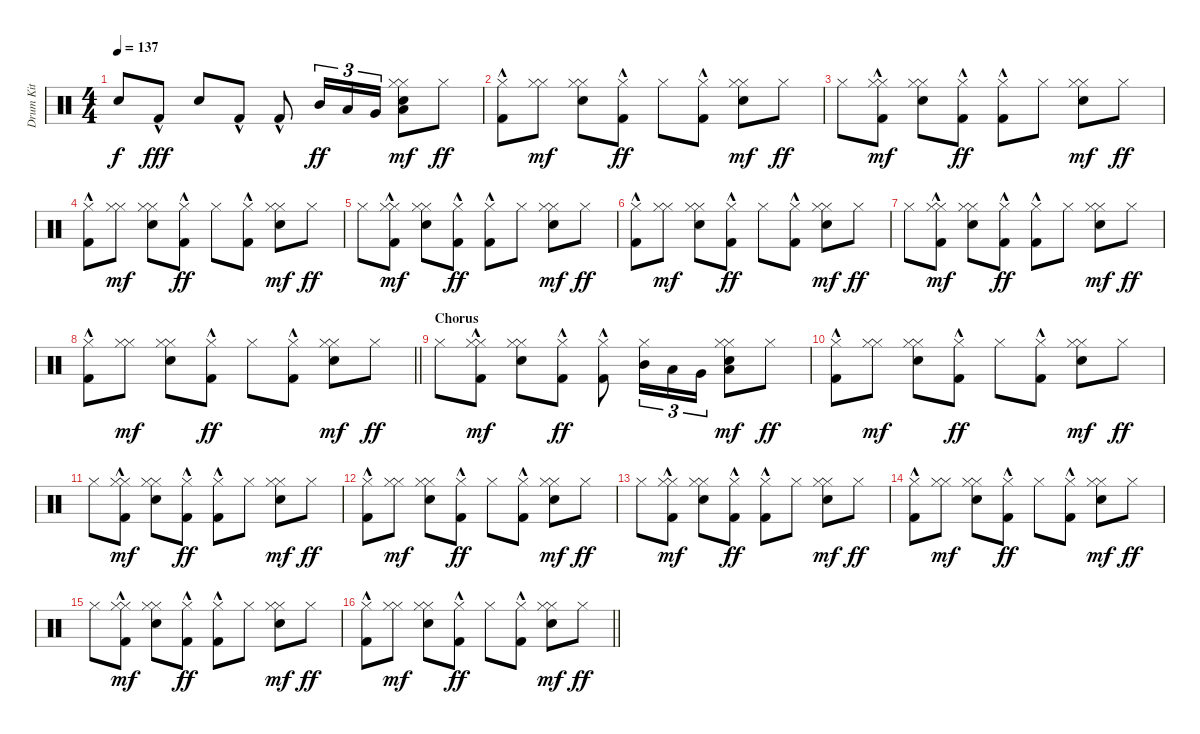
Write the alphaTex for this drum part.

\track ("Drum Kit" "Drum Kit") {instrument percussion}
\staff {score}
\articulation defaults
\ts (4 4)
\tempo 137
\clef neutral
\ks c "Snare (hit)"{t}.8{dy f} "Kick (hit) 2"{hac}.8{dy fff} "Hand Clap (hit)".8 "Kick (hit) 2"{hac}.8 "Kick (hit) 2"{hac}.8 "Mid Tom (hit)".16{tu (3 2) dy ff} "Low Tom (hit)".16{tu (3 2)} "Very Low Tom (hit)".16{tu (3 2)}
("Hand Clap (hit)" "Low Floor Tom (hit)" "Hi-Hat (closed)" "Hi-Hat (closed)").8{dy mf} "Hi-Hat (closed)".8{dy ff} |
("Kick (hit) 2"{hac} "Hi-Hat (closed)").8 ("Hi-Hat (closed)" "Hi-Hat (closed)").8{dy mf} ("Hand Clap (hit)" "Hi-Hat (closed)" "Hi-Hat (closed)").8 ("Kick (hit) 2"{hac} "Hi-Hat (closed)").8{dy ff} "Hi-Hat (closed)".8 ("Kick (hit) 2"{hac} "Hi-Hat (closed)").8 ("Hand Clap (hit)" "Hi-Hat (closed)" "Hi-Hat (closed)").8{dy mf} "Hi-Hat (closed)".8{dy ff} |
"Hi-Hat (closed)".8 ("Kick (hit) 2"{hac} "Hi-Hat (closed)" "Hi-Hat (closed)").8{dy mf} ("Hand Clap (hit)" "Hi-Hat (closed)" "Hi-Hat (closed)").8 ("Kick (hit) 2"{hac} "Hi-Hat (closed)").8{dy ff} ("Kick (hit) 2"{hac} "Hi-Hat (closed)").8 "Hi-Hat (closed)".8 ("Hand Clap (hit)" "Hi-Hat (closed)" "Hi-Hat (closed)").8{dy mf} "Hi-Hat (closed)".8{dy ff} |
("Kick (hit) 2"{hac} "Hi-Hat (closed)").8 ("Hi-Hat (closed)" "Hi-Hat (closed)").8{dy mf} ("Hand Clap (hit)" "Hi-Hat (closed)" "Hi-Hat (closed)").8 ("Kick (hit) 2"{hac} "Hi-Hat (closed)").8{dy ff} "Hi-Hat (closed)".8 ("Kick (hit) 2"{hac} "Hi-Hat (closed)").8 ("Hand Clap (hit)" "Hi-Hat (closed)" "Hi-Hat (closed)").8{dy mf} "Hi-Hat (closed)".8{dy ff} |
"Hi-Hat (closed)".8 ("Kick (hit) 2"{hac} "Hi-Hat (closed)" "Hi-Hat (closed)").8{dy mf} ("Hand Clap (hit)" "Hi-Hat (closed)" "Hi-Hat (closed)").8 ("Kick (hit) 2"{hac} "Hi-Hat (closed)").8{dy ff} ("Kick (hit) 2"{hac} "Hi-Hat (closed)").8 "Hi-Hat (closed)".8 ("Hand Clap (hit)" "Hi-Hat (closed)" "Hi-Hat (closed)").8{dy mf} "Hi-Hat (closed)".8{dy ff} |
("Kick (hit) 2"{hac} "Hi-Hat (closed)").8 ("Hi-Hat (closed)" "Hi-Hat (closed)").8{dy mf} ("Hand Clap (hit)" "Hi-Hat (closed)" "Hi-Hat (closed)").8 ("Kick (hit) 2"{hac} "Hi-Hat (closed)").8{dy ff} "Hi-Hat (closed)".8 ("Kick (hit) 2"{hac} "Hi-Hat (closed)").8 ("Hand Clap (hit)" "Hi-Hat (closed)" "Hi-Hat (closed)").8{dy mf} "Hi-Hat (closed)".8{dy ff} |
"Hi-Hat (closed)".8 ("Kick (hit) 2"{hac} "Hi-Hat (closed)" "Hi-Hat (closed)").8{dy mf} ("Hand Clap (hit)" "Hi-Hat (closed)" "Hi-Hat (closed)").8 ("Kick (hit) 2"{hac} "Hi-Hat (closed)").8{dy ff} ("Kick (hit) 2"{hac} "Hi-Hat (closed)").8 "Hi-Hat (closed)".8 ("Hand Clap (hit)" "Hi-Hat (closed)" "Hi-Hat (closed)").8{dy mf} "Hi-Hat (closed)".8{dy ff} |
\barLineRight lightlight
("Kick (hit) 2"{hac} "Hi-Hat (closed)").8 ("Hi-Hat (closed)" "Hi-Hat (closed)").8{dy mf} ("Hand Clap (hit)" "Hi-Hat (closed)" "Hi-Hat (closed)").8 ("Kick (hit) 2"{hac} "Hi-Hat (closed)").8{dy ff} "Hi-Hat (closed)".8 ("Kick (hit) 2"{hac} "Hi-Hat (closed)").8 ("Hand Clap (hit)" "Hi-Hat (closed)" "Hi-Hat (closed)").8{dy mf} "Hi-Hat (closed)".8{dy ff} |
\section ("" "Chorus")
"Hi-Hat (closed)".8 ("Kick (hit) 2"{hac} "Hi-Hat (closed)" "Hi-Hat (closed)").8{dy mf} ("Hand Clap (hit)" "Hi-Hat (closed)" "Hi-Hat (closed)").8 ("Kick (hit) 2"{hac} "Hi-Hat (closed)").8{dy ff} ("Kick (hit) 2"{hac} "Hi-Hat (closed)").8 ("Hi-Hat (closed)" "Mid Tom (hit)").16{tu (3 2)} "Low Tom (hit)".16{tu (3 2)} "Very Low Tom (hit)".16{tu (3 2)} ("Hand Clap (hit)" "Low Floor Tom (hit)" "Hi-Hat (closed)" "Hi-Hat (closed)").8{dy mf} "Hi-Hat (closed)".8{dy ff} |
("Kick (hit) 2"{hac} "Hi-Hat (closed)").8 ("Hi-Hat (closed)" "Hi-Hat (closed)").8{dy mf} ("Hand Clap (hit)" "Hi-Hat (closed)" "Hi-Hat (closed)").8 ("Kick (hit) 2"{hac} "Hi-Hat (closed)").8{dy ff} "Hi-Hat (closed)".8 ("Kick (hit) 2"{hac} "Hi-Hat (closed)").8 ("Hand Clap (hit)" "Hi-Hat (closed)" "Hi-Hat (closed)").8{dy mf} "Hi-Hat (closed)".8{dy ff} |
"Hi-Hat (closed)".8 ("Kick (hit) 2"{hac} "Hi-Hat (closed)" "Hi-Hat (closed)").8{dy mf} ("Hand Clap (hit)" "Hi-Hat (closed)" "Hi-Hat (closed)").8 ("Kick (hit) 2"{hac} "Hi-Hat (closed)").8{dy ff} ("Kick (hit) 2"{hac} "Hi-Hat (closed)").8 "Hi-Hat (closed)".8 ("Hand Clap (hit)" "Hi-Hat (closed)" "Hi-Hat (closed)").8{dy mf} "Hi-Hat (closed)".8{dy ff} |
("Kick (hit) 2"{hac} "Hi-Hat (closed)").8 ("Hi-Hat (closed)" "Hi-Hat (closed)").8{dy mf} ("Hand Clap (hit)" "Hi-Hat (closed)" "Hi-Hat (closed)").8 ("Kick (hit) 2"{hac} "Hi-Hat (closed)").8{dy ff} "Hi-Hat (closed)".8 ("Kick (hit) 2"{hac} "Hi-Hat (closed)").8 ("Hand Clap (hit)" "Hi-Hat (closed)" "Hi-Hat (closed)").8{dy mf} "Hi-Hat (closed)".8{dy ff} |
"Hi-Hat (closed)".8 ("Kick (hit) 2"{hac} "Hi-Hat (closed)" "Hi-Hat (closed)").8{dy mf} ("Hand Clap (hit)" "Hi-Hat (closed)" "Hi-Hat (closed)").8 ("Kick (hit) 2"{hac} "Hi-Hat (closed)").8{dy ff} ("Kick (hit) 2"{hac} "Hi-Hat (closed)").8 "Hi-Hat (closed)".8 ("Hand Clap (hit)" "Hi-Hat (closed)" "Hi-Hat (closed)").8{dy mf} "Hi-Hat (closed)".8{dy ff} |
("Kick (hit) 2"{hac} "Hi-Hat (closed)").8 ("Hi-Hat (closed)" "Hi-Hat (closed)").8{dy mf} ("Hand Clap (hit)" "Hi-Hat (closed)" "Hi-Hat (closed)").8 ("Kick (hit) 2"{hac} "Hi-Hat (closed)").8{dy ff} "Hi-Hat (closed)".8 ("Kick (hit) 2"{hac} "Hi-Hat (closed)").8 ("Hand Clap (hit)" "Hi-Hat (closed)" "Hi-Hat (closed)").8{dy mf} "Hi-Hat (closed)".8{dy ff} |
"Hi-Hat (closed)".8 ("Kick (hit) 2"{hac} "Hi-Hat (closed)" "Hi-Hat (closed)").8{dy mf} ("Hand Clap (hit)" "Hi-Hat (closed)" "Hi-Hat (closed)").8 ("Kick (hit) 2"{hac} "Hi-Hat (closed)").8{dy ff} ("Kick (hit) 2"{hac} "Hi-Hat (closed)").8 "Hi-Hat (closed)".8 ("Hand Clap (hit)" "Hi-Hat (closed)" "Hi-Hat (closed)").8{dy mf} "Hi-Hat (closed)".8{dy ff} |
\barLineRight lightlight
("Kick (hit) 2"{hac} "Hi-Hat (closed)").8 ("Hi-Hat (closed)" "Hi-Hat (closed)").8{dy mf} ("Hand Clap (hit)" "Hi-Hat (closed)" "Hi-Hat (closed)").8 ("Kick (hit) 2"{hac} "Hi-Hat (closed)").8{dy ff} "Hi-Hat (closed)".8 ("Kick (hit) 2"{hac} "Hi-Hat (closed)").8 ("Hand Clap (hit)" "Hi-Hat (closed)" "Hi-Hat (closed)").8{dy mf} "Hi-Hat (closed)".8{dy ff}
